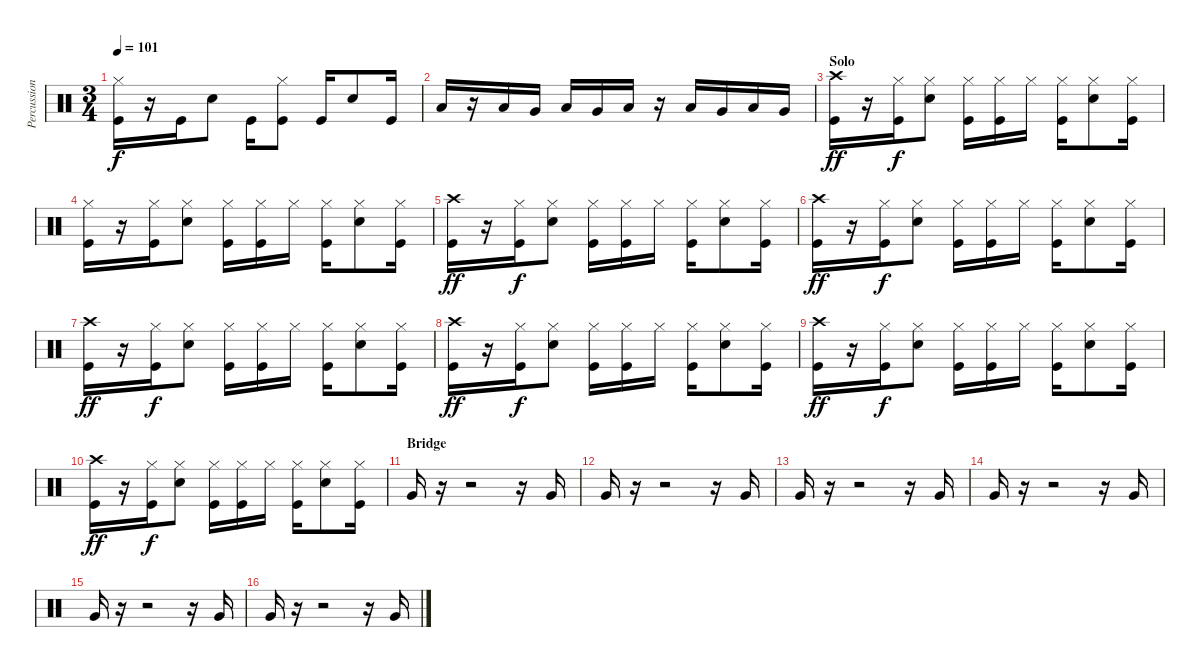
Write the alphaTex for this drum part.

\track ("Percussion" "Percussion") {instrument percussion}
\staff {score}
\articulation defaults
\ts (3 4)
\tempo 101
\clef neutral
\ks c
("Hi-Hat (closed)" "Kick (hit)").16{dy f} r.16 "Kick (hit)".16 "Electric Snare (hit)".8 "Kick (hit)".16 ("Hi-Hat (closed)" "Kick (hit)").8 "Kick (hit)".16 "Electric Snare (hit)".8 "Kick (hit)".16 |
"Low Tom (hit)".16 r.16 "Low Tom (hit)".16 "Very Low Tom (hit)".16 "Low Tom (hit)".16 "Very Low Tom (hit)".16 "Low Tom (hit)".16 r.16 "Low Tom (hit)".16 "Very Low Tom (hit)".16 "Low Tom (hit)".16 "Very Low Tom (hit)".16 |
\section ("" "Solo")
("Crash high (hit)" "Kick (hit)").16{dy ff} r.16 ("Hi-Hat (closed)" "Kick (hit)").16{dy f} ("Hi-Hat (closed)" "Electric Snare (hit)").8 ("Hi-Hat (closed)" "Kick (hit)").16 ("Hi-Hat (closed)" "Kick (hit)").16 "Hi-Hat (closed)".16 ("Hi-Hat (closed)" "Kick (hit)").16 ("Hi-Hat (closed)" "Electric Snare (hit)").8 ("Hi-Hat (closed)" "Kick (hit)").16 |
("Hi-Hat (closed)" "Kick (hit)").16 r.16 ("Hi-Hat (closed)" "Kick (hit)").16 ("Hi-Hat (closed)" "Electric Snare (hit)").8 ("Hi-Hat (closed)" "Kick (hit)").16 ("Hi-Hat (closed)" "Kick (hit)").16 "Hi-Hat (closed)".16 ("Hi-Hat (closed)" "Kick (hit)").16 ("Hi-Hat (closed)" "Electric Snare (hit)").8 ("Hi-Hat (closed)" "Kick (hit)").16 |
("Crash high (hit)" "Kick (hit)").16{dy ff} r.16 ("Hi-Hat (closed)" "Kick (hit)").16{dy f} ("Hi-Hat (closed)" "Electric Snare (hit)").8 ("Hi-Hat (closed)" "Kick (hit)").16 ("Hi-Hat (closed)" "Kick (hit)").16 "Hi-Hat (closed)".16 ("Hi-Hat (closed)" "Kick (hit)").16 ("Hi-Hat (closed)" "Electric Snare (hit)").8 ("Hi-Hat (closed)" "Kick (hit)").16 |
("Crash high (hit)" "Kick (hit)").16{dy ff} r.16 ("Hi-Hat (closed)" "Kick (hit)").16{dy f} ("Hi-Hat (closed)" "Electric Snare (hit)").8 ("Hi-Hat (closed)" "Kick (hit)").16 ("Hi-Hat (closed)" "Kick (hit)").16 "Hi-Hat (closed)".16 ("Hi-Hat (closed)" "Kick (hit)").16 ("Hi-Hat (closed)" "Electric Snare (hit)").8 ("Hi-Hat (closed)" "Kick (hit)").16 |
("Crash high (hit)" "Kick (hit)").16{dy ff} r.16 ("Hi-Hat (closed)" "Kick (hit)").16{dy f} ("Hi-Hat (closed)" "Electric Snare (hit)").8 ("Hi-Hat (closed)" "Kick (hit)").16 ("Hi-Hat (closed)" "Kick (hit)").16 "Hi-Hat (closed)".16 ("Hi-Hat (closed)" "Kick (hit)").16 ("Hi-Hat (closed)" "Electric Snare (hit)").8 ("Hi-Hat (closed)" "Kick (hit)").16 |
("Crash high (hit)" "Kick (hit)").16{dy ff} r.16 ("Hi-Hat (closed)" "Kick (hit)").16{dy f} ("Hi-Hat (closed)" "Electric Snare (hit)").8 ("Hi-Hat (closed)" "Kick (hit)").16 ("Hi-Hat (closed)" "Kick (hit)").16 "Hi-Hat (closed)".16 ("Hi-Hat (closed)" "Kick (hit)").16 ("Hi-Hat (closed)" "Electric Snare (hit)").8 ("Hi-Hat (closed)" "Kick (hit)").16 |
("Crash high (hit)" "Kick (hit)").16{dy ff} r.16 ("Hi-Hat (closed)" "Kick (hit)").16{dy f} ("Hi-Hat (closed)" "Electric Snare (hit)").8 ("Hi-Hat (closed)" "Kick (hit)").16 ("Hi-Hat (closed)" "Kick (hit)").16 "Hi-Hat (closed)".16 ("Hi-Hat (closed)" "Kick (hit)").16 ("Hi-Hat (closed)" "Electric Snare (hit)").8 ("Hi-Hat (closed)" "Kick (hit)").16 |
("Crash high (hit)" "Kick (hit)").16{dy ff} r.16 ("Hi-Hat (closed)" "Kick (hit)").16{dy f} ("Hi-Hat (closed)" "Electric Snare (hit)").8 ("Hi-Hat (closed)" "Kick (hit)").16 ("Hi-Hat (closed)" "Kick (hit)").16 "Hi-Hat (closed)".16 ("Hi-Hat (closed)" "Kick (hit)").16 ("Hi-Hat (closed)" "Electric Snare (hit)").8 ("Hi-Hat (closed)" "Kick (hit)").16 |
\section ("" "Bridge")
"Very Low Tom (hit)".16 r.16 r.2 r.16 "Very Low Tom (hit)".16 |
"Very Low Tom (hit)".16 r.16 r.2 r.16 "Very Low Tom (hit)".16 |
"Very Low Tom (hit)".16 r.16 r.2 r.16 "Very Low Tom (hit)".16 |
"Very Low Tom (hit)".16 r.16 r.2 r.16 "Very Low Tom (hit)".16 |
"Very Low Tom (hit)".16 r.16 r.2 r.16 "Very Low Tom (hit)".16 |
"Very Low Tom (hit)".16 r.16 r.2 r.16 "Very Low Tom (hit)".16
